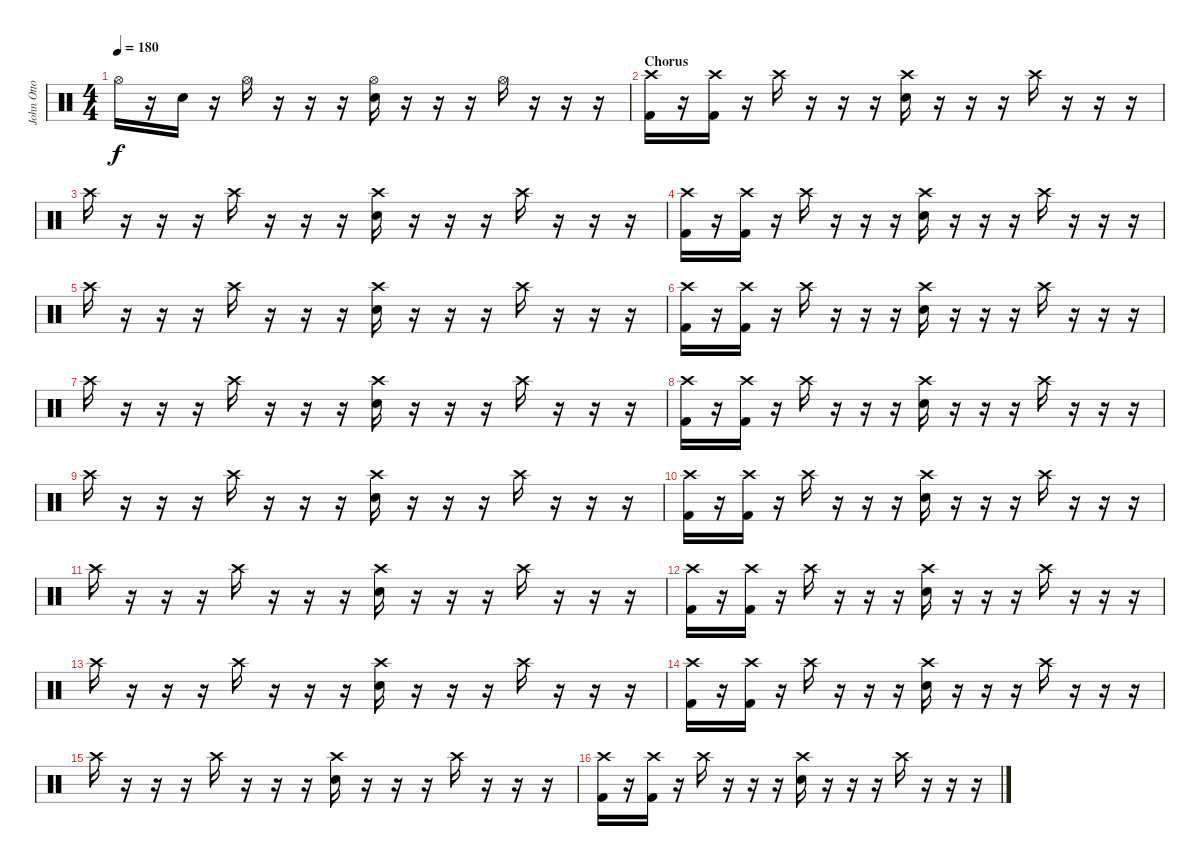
\track ("John Otto" "John Otto") {instrument percussion}
\staff {score}
\articulation defaults
\ts (4 4)
\tempo 180
\clef neutral
\ks c "Hi-Hat (open)".16{dy f}
r.16 "Snare (hit) 2".16 r.16 "Hi-Hat (open)".16 r.16 r.16 r.16 ("Hi-Hat (open)" "Snare (hit) 2").16 r.16 r.16 r.16 "Hi-Hat (open)".16 r.16 r.16 r.16 |
\section ("" "Chorus")
("Crash high (hit)" "Kick (hit) 2").16 r.16 ("Crash high (hit)" "Kick (hit) 2").16 r.16 "Crash high (hit)".16 r.16 r.16 r.16 ("Crash high (hit)" "Snare (hit) 2").16 r.16 r.16 r.16 "Crash high (hit)".16 r.16 r.16 r.16 |
"Crash high (hit)".16 r.16 r.16 r.16 "Crash high (hit)".16 r.16 r.16 r.16 ("Crash high (hit)" "Snare (hit) 2").16 r.16 r.16 r.16 "Crash high (hit)".16 r.16 r.16 r.16 |
("Crash high (hit)" "Kick (hit) 2").16 r.16 ("Crash high (hit)" "Kick (hit) 2").16 r.16 "Crash high (hit)".16 r.16 r.16 r.16 ("Crash high (hit)" "Snare (hit) 2").16 r.16 r.16 r.16 "Crash high (hit)".16 r.16 r.16 r.16 |
"Crash high (hit)".16 r.16 r.16 r.16 "Crash high (hit)".16 r.16 r.16 r.16 ("Crash high (hit)" "Snare (hit) 2").16 r.16 r.16 r.16 "Crash high (hit)".16 r.16 r.16 r.16 |
("Crash high (hit)" "Kick (hit) 2").16 r.16 ("Crash high (hit)" "Kick (hit) 2").16 r.16 "Crash high (hit)".16 r.16 r.16 r.16 ("Crash high (hit)" "Snare (hit) 2").16 r.16 r.16 r.16 "Crash high (hit)".16 r.16 r.16 r.16 |
"Crash high (hit)".16 r.16 r.16 r.16 "Crash high (hit)".16 r.16 r.16 r.16 ("Crash high (hit)" "Snare (hit) 2").16 r.16 r.16 r.16 "Crash high (hit)".16 r.16 r.16 r.16 |
("Crash high (hit)" "Kick (hit) 2").16 r.16 ("Crash high (hit)" "Kick (hit) 2").16 r.16 "Crash high (hit)".16 r.16 r.16 r.16 ("Crash high (hit)" "Snare (hit) 2").16 r.16 r.16 r.16 "Crash high (hit)".16 r.16 r.16 r.16 |
"Crash high (hit)".16 r.16 r.16 r.16 "Crash high (hit)".16 r.16 r.16 r.16 ("Crash high (hit)" "Snare (hit) 2").16 r.16 r.16 r.16 "Crash high (hit)".16 r.16 r.16 r.16 |
("Crash high (hit)" "Kick (hit) 2").16 r.16 ("Crash high (hit)" "Kick (hit) 2").16 r.16 "Crash high (hit)".16 r.16 r.16 r.16 ("Crash high (hit)" "Snare (hit) 2").16 r.16 r.16 r.16 "Crash high (hit)".16 r.16 r.16 r.16 |
"Crash high (hit)".16 r.16 r.16 r.16 "Crash high (hit)".16 r.16 r.16 r.16 ("Crash high (hit)" "Snare (hit) 2").16 r.16 r.16 r.16 "Crash high (hit)".16 r.16 r.16 r.16 |
("Crash high (hit)" "Kick (hit) 2").16 r.16 ("Crash high (hit)" "Kick (hit) 2").16 r.16 "Crash high (hit)".16 r.16 r.16 r.16 ("Crash high (hit)" "Snare (hit) 2").16 r.16 r.16 r.16 "Crash high (hit)".16 r.16 r.16 r.16 |
"Crash high (hit)".16 r.16 r.16 r.16 "Crash high (hit)".16 r.16 r.16 r.16 ("Crash high (hit)" "Snare (hit) 2").16 r.16 r.16 r.16 "Crash high (hit)".16 r.16 r.16 r.16 |
("Crash high (hit)" "Kick (hit) 2").16 r.16 ("Crash high (hit)" "Kick (hit) 2").16 r.16 "Crash high (hit)".16 r.16 r.16 r.16 ("Crash high (hit)" "Snare (hit) 2").16 r.16 r.16 r.16 "Crash high (hit)".16 r.16 r.16 r.16 |
"Crash high (hit)".16 r.16 r.16 r.16 "Crash high (hit)".16 r.16 r.16 r.16 ("Crash high (hit)" "Snare (hit) 2").16 r.16 r.16 r.16 "Crash high (hit)".16 r.16 r.16 r.16 |
("Crash high (hit)" "Kick (hit) 2").16 r.16 ("Crash high (hit)" "Kick (hit) 2").16 r.16 "Crash high (hit)".16 r.16 r.16 r.16 ("Crash high (hit)" "Snare (hit) 2").16 r.16 r.16 r.16 "Crash high (hit)".16 r.16 r.16 r.16
